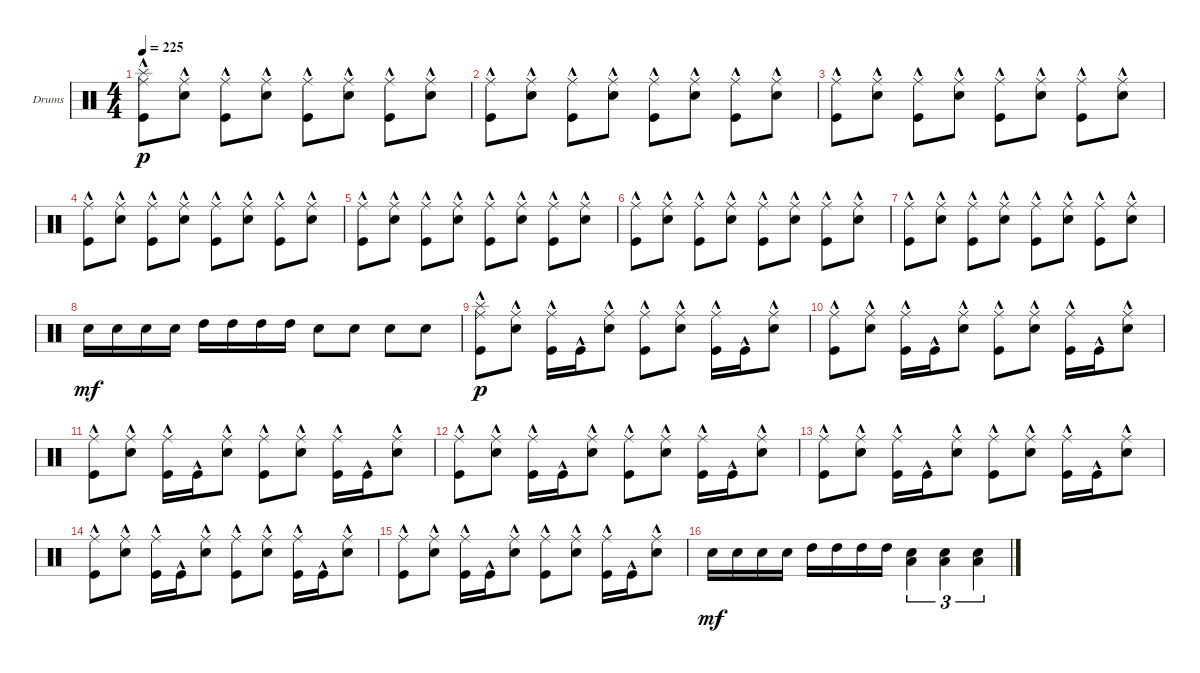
\bracketExtendMode groupsimilarinstruments
\firstSystemTrackNameOrientation horizontal
\otherSystemsTrackNameOrientation horizontal
\track ("Drumkit" "Drums") {instrument percussion}
\staff {score}
\articulation defaults
\ts (4 4)
\tempo 225
\clef neutral
\ks c
("Kick (hit)"{hac} "Ride (middle)" "Splash (hit)").8{dy p} ("Snare (hit) 2"{hac} "Ride (middle)").8 ("Kick (hit)"{hac} "Ride (middle)").8 ("Snare (hit) 2"{hac} "Ride (middle)").8 ("Kick (hit)"{hac} "Ride (middle)").8 ("Snare (hit) 2"{hac} "Ride (middle)").8 ("Kick (hit)"{hac} "Ride (middle)").8 ("Snare (hit) 2"{hac} "Ride (middle)").8 |
("Kick (hit)"{hac} "Ride (middle)").8 ("Snare (hit) 2"{hac} "Ride (middle)").8 ("Kick (hit)"{hac} "Ride (middle)").8 ("Snare (hit) 2"{hac} "Ride (middle)").8 ("Kick (hit)"{hac} "Ride (middle)").8 ("Snare (hit) 2"{hac} "Ride (middle)").8 ("Kick (hit)"{hac} "Ride (middle)").8 ("Snare (hit) 2"{hac} "Ride (middle)").8 |
("Kick (hit)"{hac} "Ride (middle)").8 ("Snare (hit) 2"{hac} "Ride (middle)").8 ("Kick (hit)"{hac} "Ride (middle)").8 ("Snare (hit) 2"{hac} "Ride (middle)").8 ("Kick (hit)"{hac} "Ride (middle)").8 ("Snare (hit) 2"{hac} "Ride (middle)").8 ("Kick (hit)"{hac} "Ride (middle)").8 ("Snare (hit) 2"{hac} "Ride (middle)").8 |
("Kick (hit)"{hac} "Ride (middle)").8 ("Snare (hit) 2"{hac} "Ride (middle)").8 ("Kick (hit)"{hac} "Ride (middle)").8 ("Snare (hit) 2"{hac} "Ride (middle)").8 ("Kick (hit)"{hac} "Ride (middle)").8 ("Snare (hit) 2"{hac} "Ride (middle)").8 ("Kick (hit)"{hac} "Ride (middle)").8 ("Snare (hit) 2"{hac} "Ride (middle)").8 |
("Kick (hit)"{hac} "Ride (middle)").8 ("Snare (hit) 2"{hac} "Ride (middle)").8 ("Kick (hit)"{hac} "Ride (middle)").8 ("Snare (hit) 2"{hac} "Ride (middle)").8 ("Kick (hit)"{hac} "Ride (middle)").8 ("Snare (hit) 2"{hac} "Ride (middle)").8 ("Kick (hit)"{hac} "Ride (middle)").8 ("Snare (hit) 2"{hac} "Ride (middle)").8 |
("Kick (hit)"{hac} "Ride (middle)").8 ("Snare (hit) 2"{hac} "Ride (middle)").8 ("Kick (hit)"{hac} "Ride (middle)").8 ("Snare (hit) 2"{hac} "Ride (middle)").8 ("Kick (hit)"{hac} "Ride (middle)").8 ("Snare (hit) 2"{hac} "Ride (middle)").8 ("Kick (hit)"{hac} "Ride (middle)").8 ("Snare (hit) 2"{hac} "Ride (middle)").8 |
("Kick (hit)"{hac} "Ride (middle)").8 ("Snare (hit) 2"{hac} "Ride (middle)").8 ("Kick (hit)"{hac} "Ride (middle)").8 ("Snare (hit) 2"{hac} "Ride (middle)").8 ("Kick (hit)"{hac} "Ride (middle)").8 ("Snare (hit) 2"{hac} "Ride (middle)").8 ("Kick (hit)"{hac} "Ride (middle)").8 ("Snare (hit) 2"{hac} "Ride (middle)").8 |
"Snare (hit) 2".16{dy mf} "Snare (hit) 2".16 "Snare (hit) 2".16 "Snare (hit) 2".16 "High Tom (hit)".16 "High Tom (hit)".16 "High Tom (hit)".16 "High Tom (hit)".16 "Snare (hit) 2".8 "Snare (hit) 2".8 "Snare (hit) 2".8 "Snare (hit) 2".8 |
("Kick (hit)"{hac} "Splash (hit)" "Ride (middle)").8{dy p} ("Snare (hit) 2"{hac} "Ride (middle)").8 ("Kick (hit)"{hac} "Ride (middle)").16 "Kick (hit)"{hac}.16 ("Snare (hit) 2"{hac} "Ride (middle)").8 ("Kick (hit)"{hac} "Ride (middle)").8 ("Snare (hit) 2"{hac} "Ride (middle)").8 ("Kick (hit)"{hac} "Ride (middle)").16 "Kick (hit)"{hac}.16 ("Snare (hit) 2"{hac} "Ride (middle)").8 |
("Kick (hit)"{hac} "Ride (middle)").8 ("Snare (hit) 2"{hac} "Ride (middle)").8 ("Kick (hit)"{hac} "Ride (middle)").16 "Kick (hit)"{hac}.16 ("Snare (hit) 2"{hac} "Ride (middle)").8 ("Kick (hit)"{hac} "Ride (middle)").8 ("Snare (hit) 2"{hac} "Ride (middle)").8 ("Kick (hit)"{hac} "Ride (middle)").16 "Kick (hit)"{hac}.16 ("Snare (hit) 2"{hac} "Ride (middle)").8 |
("Kick (hit)"{hac} "Ride (middle)").8 ("Snare (hit) 2"{hac} "Ride (middle)").8 ("Kick (hit)"{hac} "Ride (middle)").16 "Kick (hit)"{hac}.16 ("Snare (hit) 2"{hac} "Ride (middle)").8 ("Kick (hit)"{hac} "Ride (middle)").8 ("Snare (hit) 2"{hac} "Ride (middle)").8 ("Kick (hit)"{hac} "Ride (middle)").16 "Kick (hit)"{hac}.16 ("Snare (hit) 2"{hac} "Ride (middle)").8 |
("Kick (hit)"{hac} "Ride (middle)").8 ("Snare (hit) 2"{hac} "Ride (middle)").8 ("Kick (hit)"{hac} "Ride (middle)").16 "Kick (hit)"{hac}.16 ("Snare (hit) 2"{hac} "Ride (middle)").8 ("Kick (hit)"{hac} "Ride (middle)").8 ("Snare (hit) 2"{hac} "Ride (middle)").8 ("Kick (hit)"{hac} "Ride (middle)").16 "Kick (hit)"{hac}.16 ("Snare (hit) 2"{hac} "Ride (middle)").8 |
("Kick (hit)"{hac} "Ride (middle)").8 ("Snare (hit) 2"{hac} "Ride (middle)").8 ("Kick (hit)"{hac} "Ride (middle)").16 "Kick (hit)"{hac}.16 ("Snare (hit) 2"{hac} "Ride (middle)").8 ("Kick (hit)"{hac} "Ride (middle)").8 ("Snare (hit) 2"{hac} "Ride (middle)").8 ("Kick (hit)"{hac} "Ride (middle)").16 "Kick (hit)"{hac}.16 ("Snare (hit) 2"{hac} "Ride (middle)").8 |
("Kick (hit)"{hac} "Ride (middle)").8 ("Snare (hit) 2"{hac} "Ride (middle)").8 ("Kick (hit)"{hac} "Ride (middle)").16 "Kick (hit)"{hac}.16 ("Snare (hit) 2"{hac} "Ride (middle)").8 ("Kick (hit)"{hac} "Ride (middle)").8 ("Snare (hit) 2"{hac} "Ride (middle)").8 ("Kick (hit)"{hac} "Ride (middle)").16 "Kick (hit)"{hac}.16 ("Snare (hit) 2"{hac} "Ride (middle)").8 |
("Kick (hit)"{hac} "Ride (middle)").8 ("Snare (hit) 2"{hac} "Ride (middle)").8 ("Kick (hit)"{hac} "Ride (middle)").16 "Kick (hit)"{hac}.16 ("Snare (hit) 2"{hac} "Ride (middle)").8 ("Kick (hit)"{hac} "Ride (middle)").8 ("Snare (hit) 2"{hac} "Ride (middle)").8 ("Kick (hit)"{hac} "Ride (middle)").16 "Kick (hit)"{hac}.16 ("Snare (hit) 2"{hac} "Ride (middle)").8 |
"Snare (hit) 2".16{dy mf} "Snare (hit) 2".16 "Snare (hit) 2".16 "Snare (hit) 2".16 "High Tom (hit)".16 "High Tom (hit)".16 "High Tom (hit)".16 "High Tom (hit)".16 ("Snare (hit) 2" "Low Tom (hit)").4{tu (3 2)} ("Snare (hit) 2" "Low Tom (hit)").4{tu (3 2)} ("Snare (hit) 2" "Low Tom (hit)").4{tu (3 2)}
